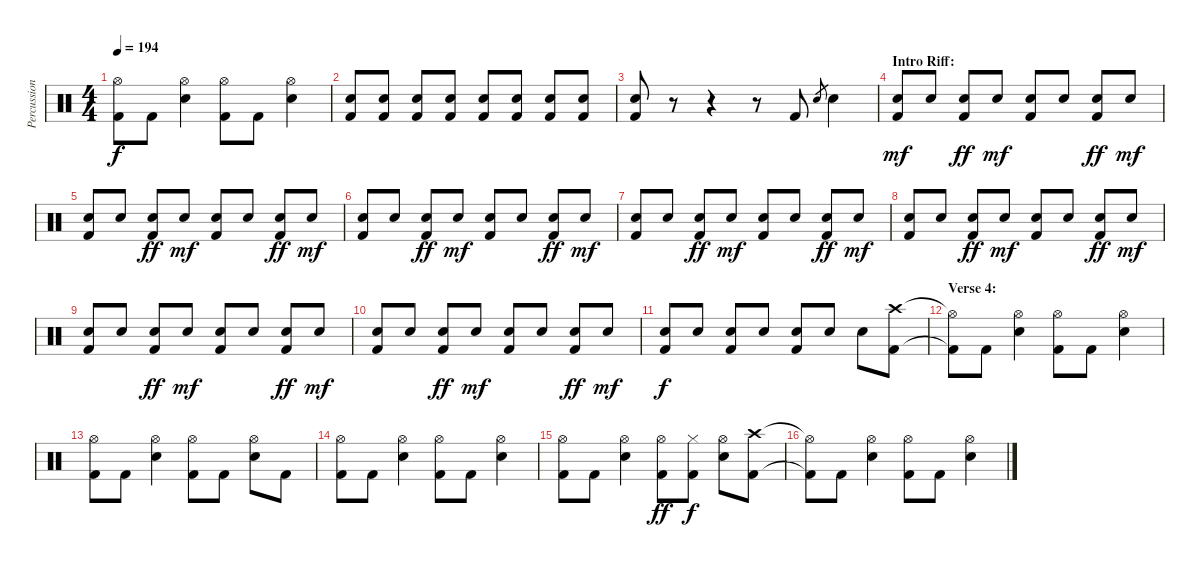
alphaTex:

\track ("Percussion" "Percussion") {instrument percussion}
\staff {score}
\articulation defaults
\ts (4 4)
\tempo 194
\clef neutral
\ks c
("Hi-Hat (open)" "Kick (hit) 2").8{dy f} "Kick (hit) 2".8 ("Hi-Hat (open)" "Electric Snare (hit)").4 ("Hi-Hat (open)" "Kick (hit) 2").8 "Kick (hit) 2".8 ("Hi-Hat (open)" "Electric Snare (hit)").4 |
("Electric Snare (hit)" "Kick (hit) 2").8 ("Electric Snare (hit)" "Kick (hit) 2").8 ("Electric Snare (hit)" "Kick (hit) 2").8 ("Electric Snare (hit)" "Kick (hit) 2").8 ("Electric Snare (hit)" "Kick (hit) 2").8 ("Electric Snare (hit)" "Kick (hit) 2").8 ("Electric Snare (hit)" "Kick (hit) 2").8 ("Electric Snare (hit)" "Kick (hit) 2").8 |
("Electric Snare (hit)" "Kick (hit) 2").8 r.8 r.4 r.8 "Kick (hit) 2".8 "Electric Snare (hit)".8{gr} "Electric Snare (hit)".4 |
\section ("" "Intro Riff:")
("Electric Snare (hit)" "Kick (hit) 2").8{dy mf} "Electric Snare (hit)".8 ("Electric Snare (hit)" "Kick (hit) 2").8{dy ff} "Electric Snare (hit)".8{dy mf} ("Electric Snare (hit)" "Kick (hit) 2").8 "Electric Snare (hit)".8 ("Electric Snare (hit)" "Kick (hit) 2").8{dy ff} "Electric Snare (hit)".8{dy mf} |
("Electric Snare (hit)" "Kick (hit) 2").8 "Electric Snare (hit)".8 ("Electric Snare (hit)" "Kick (hit) 2").8{dy ff} "Electric Snare (hit)".8{dy mf} ("Electric Snare (hit)" "Kick (hit) 2").8 "Electric Snare (hit)".8 ("Electric Snare (hit)" "Kick (hit) 2").8{dy ff} "Electric Snare (hit)".8{dy mf} |
("Electric Snare (hit)" "Kick (hit) 2").8 "Electric Snare (hit)".8 ("Electric Snare (hit)" "Kick (hit) 2").8{dy ff} "Electric Snare (hit)".8{dy mf} ("Electric Snare (hit)" "Kick (hit) 2").8 "Electric Snare (hit)".8 ("Electric Snare (hit)" "Kick (hit) 2").8{dy ff} "Electric Snare (hit)".8{dy mf} |
("Electric Snare (hit)" "Kick (hit) 2").8 "Electric Snare (hit)".8 ("Electric Snare (hit)" "Kick (hit) 2").8{dy ff} "Electric Snare (hit)".8{dy mf} ("Electric Snare (hit)" "Kick (hit) 2").8 "Electric Snare (hit)".8 ("Electric Snare (hit)" "Kick (hit) 2").8{dy ff} "Electric Snare (hit)".8{dy mf} |
("Electric Snare (hit)" "Kick (hit) 2").8 "Electric Snare (hit)".8 ("Electric Snare (hit)" "Kick (hit) 2").8{dy ff} "Electric Snare (hit)".8{dy mf} ("Electric Snare (hit)" "Kick (hit) 2").8 "Electric Snare (hit)".8 ("Electric Snare (hit)" "Kick (hit) 2").8{dy ff} "Electric Snare (hit)".8{dy mf} |
("Electric Snare (hit)" "Kick (hit) 2").8 "Electric Snare (hit)".8 ("Electric Snare (hit)" "Kick (hit) 2").8{dy ff} "Electric Snare (hit)".8{dy mf} ("Electric Snare (hit)" "Kick (hit) 2").8 "Electric Snare (hit)".8 ("Electric Snare (hit)" "Kick (hit) 2").8{dy ff} "Electric Snare (hit)".8{dy mf} |
("Electric Snare (hit)" "Kick (hit) 2").8 "Electric Snare (hit)".8 ("Electric Snare (hit)" "Kick (hit) 2").8{dy ff} "Electric Snare (hit)".8{dy mf} ("Electric Snare (hit)" "Kick (hit) 2").8 "Electric Snare (hit)".8 ("Electric Snare (hit)" "Kick (hit) 2").8{dy ff} "Electric Snare (hit)".8{dy mf} |
("Electric Snare (hit)" "Kick (hit) 2").8{dy f} "Electric Snare (hit)".8 ("Electric Snare (hit)" "Kick (hit) 2").8 "Electric Snare (hit)".8 ("Electric Snare (hit)" "Kick (hit) 2").8 "Electric Snare (hit)".8 "Electric Snare (hit)".8 ("Crash high (hit)" "Kick (hit) 2").8 |
\section ("" "Verse 4:")
("Hi-Hat (open)"{t} "Kick (hit) 2"{t}).8 "Kick (hit) 2".8 ("Hi-Hat (open)" "Electric Snare (hit)").4 ("Hi-Hat (open)" "Kick (hit) 2").8 "Kick (hit) 2".8 ("Hi-Hat (open)" "Electric Snare (hit)").4 |
("Hi-Hat (open)" "Kick (hit) 2").8 "Kick (hit) 2".8 ("Hi-Hat (open)" "Electric Snare (hit)").4 ("Hi-Hat (open)" "Kick (hit) 2").8 "Kick (hit) 2".8 ("Hi-Hat (open)" "Electric Snare (hit)").8 "Kick (hit) 2".8 |
("Hi-Hat (open)" "Kick (hit) 2").8 "Kick (hit) 2".8 ("Hi-Hat (open)" "Electric Snare (hit)").4 ("Hi-Hat (open)" "Kick (hit) 2").8 "Kick (hit) 2".8 ("Hi-Hat (open)" "Electric Snare (hit)").4 |
("Hi-Hat (open)" "Kick (hit) 2").8 "Kick (hit) 2".8 ("Hi-Hat (open)" "Electric Snare (hit)").4 ("Hi-Hat (open)" "Kick (hit) 2").8{dy ff} ("Hi-Hat (closed)" "Kick (hit) 2").8{dy f} ("Hi-Hat (open)" "Electric Snare (hit)").8 ("Crash high (hit)" "Kick (hit) 2").8 |
("Hi-Hat (open)"{t} "Kick (hit) 2"{t}).8 "Kick (hit) 2".8 ("Hi-Hat (open)" "Electric Snare (hit)").4 ("Hi-Hat (open)" "Kick (hit) 2").8 "Kick (hit) 2".8 ("Hi-Hat (open)" "Electric Snare (hit)").4
